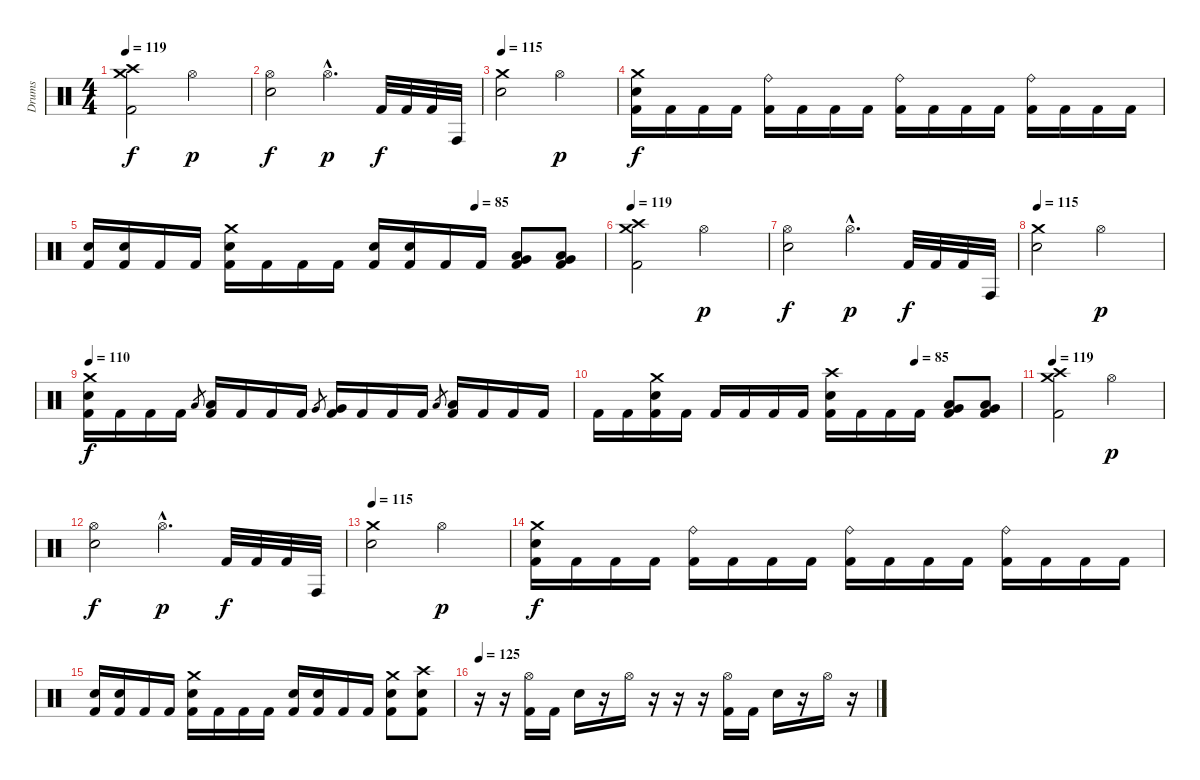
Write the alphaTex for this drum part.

\track ("Drums" "Drums") {instrument percussion}
\staff {score}
\articulation defaults
\ts (4 4)
\tempo 119
\clef neutral
\ks c
("Crash high (hit)" "Crash medium (hit)" "Kick (hit) 2").2{dy f} "Hi-Hat (open)".2{dy p} |
("Snare (hit) 2" "Hi-Hat (open)").2{dy f} "Hi-Hat (open)"{hac}.4{d dy p} "Kick (hit) 2".32{dy f} "Kick (hit) 2".32 "Kick (hit) 2".32 "Conga high (hit)".32 |
\tempo 115
("Crash medium (hit)" "Snare (hit) 2").2 "Hi-Hat (open)".2{dy p} |
("Crash medium (hit)" "Snare (hit) 2" "Kick (hit) 2").16{dy f} "Kick (hit) 2".16 "Kick (hit) 2".16 "Kick (hit) 2".16 ("Ride (bell)" "Kick (hit) 2").16 "Kick (hit) 2".16 "Kick (hit) 2".16 "Kick (hit) 2".16 ("Ride (bell)" "Kick (hit) 2").16 "Kick (hit) 2".16 "Kick (hit) 2".16 "Kick (hit) 2".16 ("Ride (bell)" "Kick (hit) 2").16 "Kick (hit) 2".16 "Kick (hit) 2".16 "Kick (hit) 2".16 |
\tempo (85 0.75)
("Snare (hit) 2" "Kick (hit) 2").16 ("Snare (hit) 2" "Kick (hit) 2").16 "Kick (hit) 2".16 "Kick (hit) 2".16 ("Crash medium (hit)" "Snare (hit) 2" "Kick (hit) 2").16 "Kick (hit) 2".16 "Kick (hit) 2".16 "Kick (hit) 2".16 ("Snare (hit) 2" "Kick (hit) 2").16 ("Snare (hit) 2" "Kick (hit) 2").16 "Kick (hit) 2".16 "Kick (hit) 2".16 ("Low Tom (hit)" "Very Low Tom (hit)" "Kick (hit) 2").8 ("Low Tom (hit)" "Very Low Tom (hit)" "Kick (hit) 2").8 |
\tempo 119
("Crash high (hit)" "Crash medium (hit)" "Kick (hit) 2").2 "Hi-Hat (open)".2{dy p} |
("Snare (hit) 2" "Hi-Hat (open)").2{dy f} "Hi-Hat (open)"{hac}.4{d dy p} "Kick (hit) 2".32{dy f} "Kick (hit) 2".32 "Kick (hit) 2".32 "Conga high (hit)".32 |
\tempo 115
("Crash medium (hit)" "Snare (hit) 2").2 "Hi-Hat (open)".2{dy p} |
\tempo 110
("Crash medium (hit)" "Snare (hit) 2" "Kick (hit) 2").16{dy f} "Kick (hit) 2".16 "Kick (hit) 2".16 "Kick (hit) 2".16 "Low Tom (hit)".8{gr} ("Low Tom (hit)" "Kick (hit) 2").16 "Kick (hit) 2".16 "Kick (hit) 2".16 "Kick (hit) 2".16 "Very Low Tom (hit)".8{gr} ("Very Low Tom (hit)" "Kick (hit) 2").16 "Kick (hit) 2".16 "Kick (hit) 2".16 "Kick (hit) 2".16 "Low Floor Tom (hit)".8{gr} ("Low Floor Tom (hit)" "Kick (hit) 2").16 "Kick (hit) 2".16 "Kick (hit) 2".16 "Kick (hit) 2".16 |
\tempo (85 0.75)
"Kick (hit) 2".16 "Kick (hit) 2".16 ("Crash medium (hit)" "Snare (hit) 2" "Kick (hit) 2").16 "Kick (hit) 2".16 "Kick (hit) 2".16 "Kick (hit) 2".16 "Kick (hit) 2".16 "Kick (hit) 2".16 ("Crash high (hit)" "Snare (hit) 2" "Kick (hit) 2").16 "Kick (hit) 2".16 "Kick (hit) 2".16 "Kick (hit) 2".16 ("Low Tom (hit)" "Very Low Tom (hit)" "Kick (hit) 2").8 ("Low Tom (hit)" "Very Low Tom (hit)" "Kick (hit) 2").8 |
\tempo 119
("Crash high (hit)" "Crash medium (hit)" "Kick (hit) 2").2 "Hi-Hat (open)".2{dy p} |
("Snare (hit) 2" "Hi-Hat (open)").2{dy f} "Hi-Hat (open)"{hac}.4{d dy p} "Kick (hit) 2".32{dy f} "Kick (hit) 2".32 "Kick (hit) 2".32 "Conga high (hit)".32 |
\tempo 115
("Crash medium (hit)" "Snare (hit) 2").2 "Hi-Hat (open)".2{dy p} |
("Crash medium (hit)" "Snare (hit) 2" "Kick (hit) 2").16{dy f} "Kick (hit) 2".16 "Kick (hit) 2".16 "Kick (hit) 2".16 ("Ride (bell)" "Kick (hit) 2").16 "Kick (hit) 2".16 "Kick (hit) 2".16 "Kick (hit) 2".16 ("Ride (bell)" "Kick (hit) 2").16 "Kick (hit) 2".16 "Kick (hit) 2".16 "Kick (hit) 2".16 ("Ride (bell)" "Kick (hit) 2").16 "Kick (hit) 2".16 "Kick (hit) 2".16 "Kick (hit) 2".16 |
("Snare (hit) 2" "Kick (hit) 2").16 ("Snare (hit) 2" "Kick (hit) 2").16 "Kick (hit) 2".16 "Kick (hit) 2".16 ("Crash medium (hit)" "Snare (hit) 2" "Kick (hit) 2").16 "Kick (hit) 2".16 "Kick (hit) 2".16 "Kick (hit) 2".16 ("Snare (hit) 2" "Kick (hit) 2").16 ("Snare (hit) 2" "Kick (hit) 2").16 "Kick (hit) 2".16 "Kick (hit) 2".16 ("Crash medium (hit)" "Snare (hit) 2" "Kick (hit) 2").8 ("Crash high (hit)" "Snare (hit) 2" "Kick (hit) 2").8 |
\tempo 125
r.16 r.16 ("Hi-Hat (open)" "Kick (hit) 2").16 "Kick (hit) 2".16 "Snare (hit) 2".16 r.16 "Hi-Hat (open)".16 r.16 r.16 r.16 ("Hi-Hat (open)" "Kick (hit) 2").16 "Kick (hit) 2".16 "Snare (hit) 2".16 r.16 "Hi-Hat (open)".16 r.16
